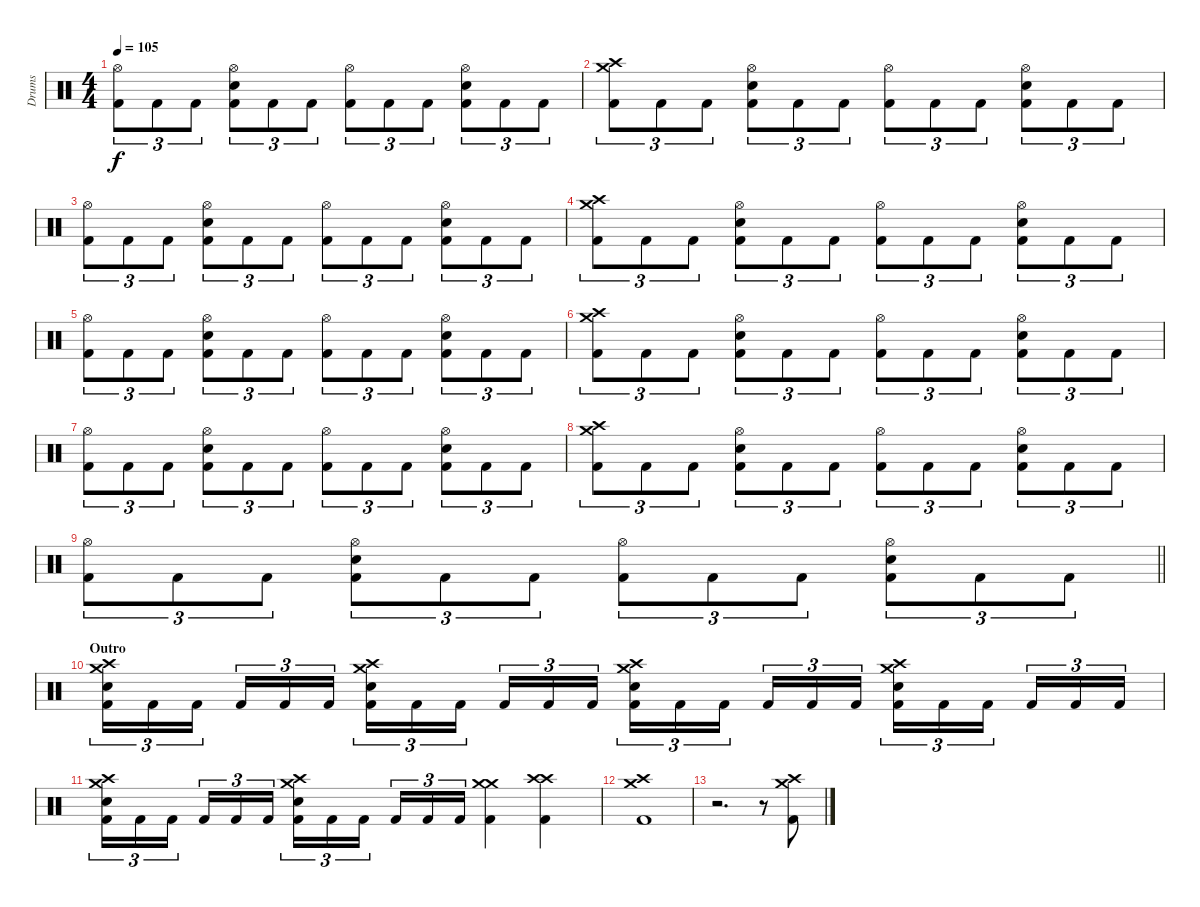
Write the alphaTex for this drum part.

\track ("Drums" "Drums") {instrument percussion}
\staff {score}
\articulation defaults
\ts (4 4)
\tempo 105
\clef neutral
\ks c
("Hi-Hat (open)" "Kick (hit) 2").8{tu (3 2) dy f} "Kick (hit) 2".8{tu (3 2)} "Kick (hit) 2".8{tu (3 2)} ("Hi-Hat (open)" "Electric Snare (hit)" "Kick (hit) 2").8{tu (3 2)} "Kick (hit) 2".8{tu (3 2)} "Kick (hit) 2".8{tu (3 2)} ("Hi-Hat (open)" "Kick (hit) 2").8{tu (3 2)} "Kick (hit) 2".8{tu (3 2)} "Kick (hit) 2".8{tu (3 2)} ("Hi-Hat (open)" "Electric Snare (hit)" "Kick (hit) 2").8{tu (3 2)} "Kick (hit) 2".8{tu (3 2)} "Kick (hit) 2".8{tu (3 2)} |
("Crash high (hit)" "Crash medium (hit)" "Kick (hit) 2").8{tu (3 2)} "Kick (hit) 2".8{tu (3 2)} "Kick (hit) 2".8{tu (3 2)} ("Hi-Hat (open)" "Electric Snare (hit)" "Kick (hit) 2").8{tu (3 2)} "Kick (hit) 2".8{tu (3 2)} "Kick (hit) 2".8{tu (3 2)} ("Hi-Hat (open)" "Kick (hit) 2").8{tu (3 2)} "Kick (hit) 2".8{tu (3 2)} "Kick (hit) 2".8{tu (3 2)} ("Hi-Hat (open)" "Electric Snare (hit)" "Kick (hit) 2").8{tu (3 2)} "Kick (hit) 2".8{tu (3 2)} "Kick (hit) 2".8{tu (3 2)} |
("Hi-Hat (open)" "Kick (hit) 2").8{tu (3 2)} "Kick (hit) 2".8{tu (3 2)} "Kick (hit) 2".8{tu (3 2)} ("Hi-Hat (open)" "Electric Snare (hit)" "Kick (hit) 2").8{tu (3 2)} "Kick (hit) 2".8{tu (3 2)} "Kick (hit) 2".8{tu (3 2)} ("Hi-Hat (open)" "Kick (hit) 2").8{tu (3 2)} "Kick (hit) 2".8{tu (3 2)} "Kick (hit) 2".8{tu (3 2)} ("Hi-Hat (open)" "Electric Snare (hit)" "Kick (hit) 2").8{tu (3 2)} "Kick (hit) 2".8{tu (3 2)} "Kick (hit) 2".8{tu (3 2)} |
("Crash high (hit)" "Crash medium (hit)" "Kick (hit) 2").8{tu (3 2)} "Kick (hit) 2".8{tu (3 2)} "Kick (hit) 2".8{tu (3 2)} ("Hi-Hat (open)" "Electric Snare (hit)" "Kick (hit) 2").8{tu (3 2)} "Kick (hit) 2".8{tu (3 2)} "Kick (hit) 2".8{tu (3 2)} ("Hi-Hat (open)" "Kick (hit) 2").8{tu (3 2)} "Kick (hit) 2".8{tu (3 2)} "Kick (hit) 2".8{tu (3 2)} ("Hi-Hat (open)" "Electric Snare (hit)" "Kick (hit) 2").8{tu (3 2)} "Kick (hit) 2".8{tu (3 2)} "Kick (hit) 2".8{tu (3 2)} |
("Hi-Hat (open)" "Kick (hit) 2").8{tu (3 2)} "Kick (hit) 2".8{tu (3 2)} "Kick (hit) 2".8{tu (3 2)} ("Hi-Hat (open)" "Electric Snare (hit)" "Kick (hit) 2").8{tu (3 2)} "Kick (hit) 2".8{tu (3 2)} "Kick (hit) 2".8{tu (3 2)} ("Hi-Hat (open)" "Kick (hit) 2").8{tu (3 2)} "Kick (hit) 2".8{tu (3 2)} "Kick (hit) 2".8{tu (3 2)} ("Hi-Hat (open)" "Electric Snare (hit)" "Kick (hit) 2").8{tu (3 2)} "Kick (hit) 2".8{tu (3 2)} "Kick (hit) 2".8{tu (3 2)} |
("Crash high (hit)" "Crash medium (hit)" "Kick (hit) 2").8{tu (3 2)} "Kick (hit) 2".8{tu (3 2)} "Kick (hit) 2".8{tu (3 2)} ("Hi-Hat (open)" "Electric Snare (hit)" "Kick (hit) 2").8{tu (3 2)} "Kick (hit) 2".8{tu (3 2)} "Kick (hit) 2".8{tu (3 2)} ("Hi-Hat (open)" "Kick (hit) 2").8{tu (3 2)} "Kick (hit) 2".8{tu (3 2)} "Kick (hit) 2".8{tu (3 2)} ("Hi-Hat (open)" "Electric Snare (hit)" "Kick (hit) 2").8{tu (3 2)} "Kick (hit) 2".8{tu (3 2)} "Kick (hit) 2".8{tu (3 2)} |
("Hi-Hat (open)" "Kick (hit) 2").8{tu (3 2)} "Kick (hit) 2".8{tu (3 2)} "Kick (hit) 2".8{tu (3 2)} ("Hi-Hat (open)" "Electric Snare (hit)" "Kick (hit) 2").8{tu (3 2)} "Kick (hit) 2".8{tu (3 2)} "Kick (hit) 2".8{tu (3 2)} ("Hi-Hat (open)" "Kick (hit) 2").8{tu (3 2)} "Kick (hit) 2".8{tu (3 2)} "Kick (hit) 2".8{tu (3 2)} ("Hi-Hat (open)" "Electric Snare (hit)" "Kick (hit) 2").8{tu (3 2)} "Kick (hit) 2".8{tu (3 2)} "Kick (hit) 2".8{tu (3 2)} |
("Crash high (hit)" "Crash medium (hit)" "Kick (hit) 2").8{tu (3 2)} "Kick (hit) 2".8{tu (3 2)} "Kick (hit) 2".8{tu (3 2)} ("Hi-Hat (open)" "Electric Snare (hit)" "Kick (hit) 2").8{tu (3 2)} "Kick (hit) 2".8{tu (3 2)} "Kick (hit) 2".8{tu (3 2)} ("Hi-Hat (open)" "Kick (hit) 2").8{tu (3 2)} "Kick (hit) 2".8{tu (3 2)} "Kick (hit) 2".8{tu (3 2)} ("Hi-Hat (open)" "Electric Snare (hit)" "Kick (hit) 2").8{tu (3 2)} "Kick (hit) 2".8{tu (3 2)} "Kick (hit) 2".8{tu (3 2)} |
\barLineRight lightlight
("Hi-Hat (open)" "Kick (hit) 2").8{tu (3 2)} "Kick (hit) 2".8{tu (3 2)} "Kick (hit) 2".8{tu (3 2)} ("Hi-Hat (open)" "Electric Snare (hit)" "Kick (hit) 2").8{tu (3 2)} "Kick (hit) 2".8{tu (3 2)} "Kick (hit) 2".8{tu (3 2)} ("Hi-Hat (open)" "Kick (hit) 2").8{tu (3 2)} "Kick (hit) 2".8{tu (3 2)} "Kick (hit) 2".8{tu (3 2)} ("Hi-Hat (open)" "Electric Snare (hit)" "Kick (hit) 2").8{tu (3 2)} "Kick (hit) 2".8{tu (3 2)} "Kick (hit) 2".8{tu (3 2)} |
\section ("" "Outro")
("Crash high (hit)" "Crash medium (hit)" "Electric Snare (hit)" "Kick (hit) 2").16{tu (3 2)} "Kick (hit) 2".16{tu (3 2)} "Kick (hit) 2".16{tu (3 2) beam splitsecondary} "Kick (hit) 2".16{tu (3 2)} "Kick (hit) 2".16{tu (3 2)} "Kick (hit) 2".16{tu (3 2)} ("Crash high (hit)" "Crash medium (hit)" "Electric Snare (hit)" "Kick (hit) 2").16{tu (3 2)} "Kick (hit) 2".16{tu (3 2)} "Kick (hit) 2".16{tu (3 2) beam splitsecondary} "Kick (hit) 2".16{tu (3 2)} "Kick (hit) 2".16{tu (3 2)} "Kick (hit) 2".16{tu (3 2)} ("Crash high (hit)" "Crash medium (hit)" "Electric Snare (hit)" "Kick (hit) 2").16{tu (3 2)} "Kick (hit) 2".16{tu (3 2)} "Kick (hit) 2".16{tu (3 2) beam splitsecondary} "Kick (hit) 2".16{tu (3 2)} "Kick (hit) 2".16{tu (3 2)} "Kick (hit) 2".16{tu (3 2)} ("Crash high (hit)" "Crash medium (hit)" "Electric Snare (hit)" "Kick (hit) 2").16{tu (3 2)} "Kick (hit) 2".16{tu (3 2)} "Kick (hit) 2".16{tu (3 2) beam splitsecondary} "Kick (hit) 2".16{tu (3 2)} "Kick (hit) 2".16{tu (3 2)} "Kick (hit) 2".16{tu (3 2)} |
("Crash high (hit)" "Crash medium (hit)" "Electric Snare (hit)" "Kick (hit) 2").16{tu (3 2)} "Kick (hit) 2".16{tu (3 2)} "Kick (hit) 2".16{tu (3 2) beam splitsecondary} "Kick (hit) 2".16{tu (3 2)} "Kick (hit) 2".16{tu (3 2)} "Kick (hit) 2".16{tu (3 2)} ("Crash high (hit)" "Crash medium (hit)" "Electric Snare (hit)" "Kick (hit) 2").16{tu (3 2)} "Kick (hit) 2".16{tu (3 2)} "Kick (hit) 2".16{tu (3 2) beam splitsecondary} "Kick (hit) 2".16{tu (3 2)} "Kick (hit) 2".16{tu (3 2)} "Kick (hit) 2".16{tu (3 2)} ("Crash medium (hit)" "Crash medium (hit)" "Kick (hit) 2").4 ("Crash high (hit)" "Crash high (hit)" "Kick (hit) 2").4 |
("Crash high (hit)" "Crash medium (hit)" "Kick (hit) 2").1 |
r.2{d} r.8 ("Crash high (hit)" "Crash medium (hit)" "Kick (hit) 2").8
